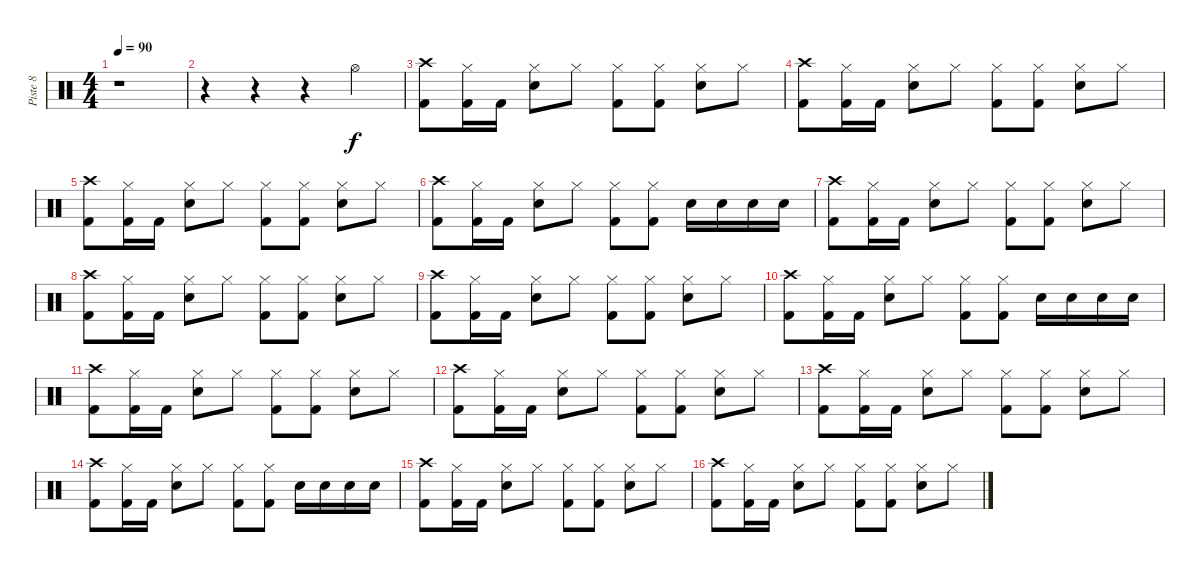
\track ("Piste 8" "Piste 8") {instrument percussion}
\staff {score}
\articulation defaults
\ts (4 4)
\tempo 90
\clef neutral
\ks c
r.1{dy f} |
r.4 r.4 r.4 "Hi-Hat (open)".4 |
("Crash high (hit)" "Kick (hit) 2").8 ("Hi-Hat (closed)" "Kick (hit) 2").16 "Kick (hit) 2".16 ("Hi-Hat (closed)" "Snare (hit) 2").8 "Hi-Hat (closed)".8 ("Hi-Hat (closed)" "Kick (hit) 2").8 ("Hi-Hat (closed)" "Kick (hit) 2").8 ("Hi-Hat (closed)" "Snare (hit) 2").8 "Hi-Hat (closed)".8 |
("Crash high (hit)" "Kick (hit) 2").8 ("Hi-Hat (closed)" "Kick (hit) 2").16 "Kick (hit) 2".16 ("Hi-Hat (closed)" "Snare (hit) 2").8 "Hi-Hat (closed)".8 ("Hi-Hat (closed)" "Kick (hit) 2").8 ("Hi-Hat (closed)" "Kick (hit) 2").8 ("Hi-Hat (closed)" "Snare (hit) 2").8 "Hi-Hat (closed)".8 |
("Crash high (hit)" "Kick (hit) 2").8 ("Hi-Hat (closed)" "Kick (hit) 2").16 "Kick (hit) 2".16 ("Hi-Hat (closed)" "Snare (hit) 2").8 "Hi-Hat (closed)".8 ("Hi-Hat (closed)" "Kick (hit) 2").8 ("Hi-Hat (closed)" "Kick (hit) 2").8 ("Hi-Hat (closed)" "Snare (hit) 2").8 "Hi-Hat (closed)".8 |
("Crash high (hit)" "Kick (hit) 2").8 ("Hi-Hat (closed)" "Kick (hit) 2").16 "Kick (hit) 2".16 ("Hi-Hat (closed)" "Snare (hit) 2").8 "Hi-Hat (closed)".8 ("Hi-Hat (closed)" "Kick (hit) 2").8 ("Hi-Hat (closed)" "Kick (hit) 2").8 "Snare (hit) 2".16 "Snare (hit) 2".16 "Snare (hit) 2".16 "Snare (hit) 2".16 |
("Crash high (hit)" "Kick (hit) 2").8 ("Hi-Hat (closed)" "Kick (hit) 2").16 "Kick (hit) 2".16 ("Hi-Hat (closed)" "Snare (hit) 2").8 "Hi-Hat (closed)".8 ("Hi-Hat (closed)" "Kick (hit) 2").8 ("Hi-Hat (closed)" "Kick (hit) 2").8 ("Hi-Hat (closed)" "Snare (hit) 2").8 "Hi-Hat (closed)".8 |
("Crash high (hit)" "Kick (hit) 2").8 ("Hi-Hat (closed)" "Kick (hit) 2").16 "Kick (hit) 2".16 ("Hi-Hat (closed)" "Snare (hit) 2").8 "Hi-Hat (closed)".8 ("Hi-Hat (closed)" "Kick (hit) 2").8 ("Hi-Hat (closed)" "Kick (hit) 2").8 ("Hi-Hat (closed)" "Snare (hit) 2").8 "Hi-Hat (closed)".8 |
("Crash high (hit)" "Kick (hit) 2").8 ("Hi-Hat (closed)" "Kick (hit) 2").16 "Kick (hit) 2".16 ("Hi-Hat (closed)" "Snare (hit) 2").8 "Hi-Hat (closed)".8 ("Hi-Hat (closed)" "Kick (hit) 2").8 ("Hi-Hat (closed)" "Kick (hit) 2").8 ("Hi-Hat (closed)" "Snare (hit) 2").8 "Hi-Hat (closed)".8 |
("Crash high (hit)" "Kick (hit) 2").8 ("Hi-Hat (closed)" "Kick (hit) 2").16 "Kick (hit) 2".16 ("Hi-Hat (closed)" "Snare (hit) 2").8 "Hi-Hat (closed)".8 ("Hi-Hat (closed)" "Kick (hit) 2").8 ("Hi-Hat (closed)" "Kick (hit) 2").8 "Snare (hit) 2".16 "Snare (hit) 2".16 "Snare (hit) 2".16 "Snare (hit) 2".16 |
("Crash high (hit)" "Kick (hit) 2").8 ("Hi-Hat (closed)" "Kick (hit) 2").16 "Kick (hit) 2".16 ("Hi-Hat (closed)" "Snare (hit) 2").8 "Hi-Hat (closed)".8 ("Hi-Hat (closed)" "Kick (hit) 2").8 ("Hi-Hat (closed)" "Kick (hit) 2").8 ("Hi-Hat (closed)" "Snare (hit) 2").8 "Hi-Hat (closed)".8 |
("Crash high (hit)" "Kick (hit) 2").8 ("Hi-Hat (closed)" "Kick (hit) 2").16 "Kick (hit) 2".16 ("Hi-Hat (closed)" "Snare (hit) 2").8 "Hi-Hat (closed)".8 ("Hi-Hat (closed)" "Kick (hit) 2").8 ("Hi-Hat (closed)" "Kick (hit) 2").8 ("Hi-Hat (closed)" "Snare (hit) 2").8 "Hi-Hat (closed)".8 |
("Crash high (hit)" "Kick (hit) 2").8 ("Hi-Hat (closed)" "Kick (hit) 2").16 "Kick (hit) 2".16 ("Hi-Hat (closed)" "Snare (hit) 2").8 "Hi-Hat (closed)".8 ("Hi-Hat (closed)" "Kick (hit) 2").8 ("Hi-Hat (closed)" "Kick (hit) 2").8 ("Hi-Hat (closed)" "Snare (hit) 2").8 "Hi-Hat (closed)".8 |
("Crash high (hit)" "Kick (hit) 2").8 ("Hi-Hat (closed)" "Kick (hit) 2").16 "Kick (hit) 2".16 ("Hi-Hat (closed)" "Snare (hit) 2").8 "Hi-Hat (closed)".8 ("Hi-Hat (closed)" "Kick (hit) 2").8 ("Hi-Hat (closed)" "Kick (hit) 2").8 "Snare (hit) 2".16 "Snare (hit) 2".16 "Snare (hit) 2".16 "Snare (hit) 2".16 |
("Crash high (hit)" "Kick (hit) 2").8 ("Hi-Hat (closed)" "Kick (hit) 2").16 "Kick (hit) 2".16 ("Hi-Hat (closed)" "Snare (hit) 2").8 "Hi-Hat (closed)".8 ("Hi-Hat (closed)" "Kick (hit) 2").8 ("Hi-Hat (closed)" "Kick (hit) 2").8 ("Hi-Hat (closed)" "Snare (hit) 2").8 "Hi-Hat (closed)".8 |
("Crash high (hit)" "Kick (hit) 2").8 ("Hi-Hat (closed)" "Kick (hit) 2").16 "Kick (hit) 2".16 ("Hi-Hat (closed)" "Snare (hit) 2").8 "Hi-Hat (closed)".8 ("Hi-Hat (closed)" "Kick (hit) 2").8 ("Hi-Hat (closed)" "Kick (hit) 2").8 ("Hi-Hat (closed)" "Snare (hit) 2").8 "Hi-Hat (closed)".8
